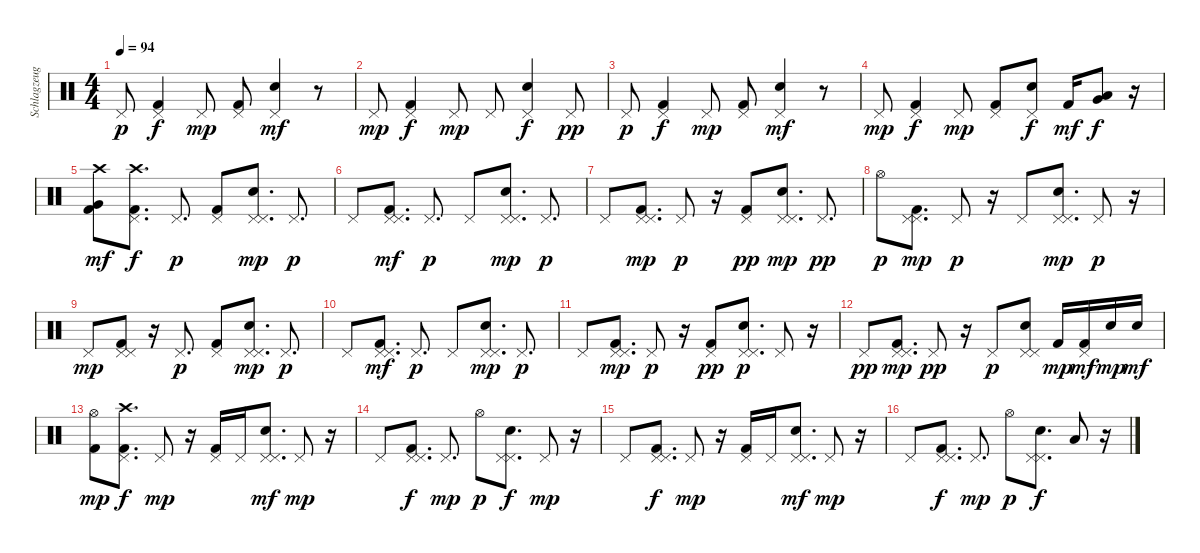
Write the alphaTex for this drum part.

\track ("Schlagzeug" "Schlagzeug") {instrument percussion}
\staff {score}
\articulation defaults
\ts (4 4)
\tempo 94
\clef neutral
\ks c "Pedal Hi-Hat (hit)".8{dy p}
("Kick (hit) 2" "Pedal Hi-Hat (hit)").4{dy f} "Pedal Hi-Hat (hit)".8{dy mp} ("Kick (hit) 2" "Pedal Hi-Hat (hit)").8 ("Electric Snare (hit)" "Pedal Hi-Hat (hit)").4{dy mf} r.8 |
"Pedal Hi-Hat (hit)".8{dy mp} ("Kick (hit) 2" "Pedal Hi-Hat (hit)").4{dy f} "Pedal Hi-Hat (hit)".8{dy mp} "Pedal Hi-Hat (hit)".8 ("Electric Snare (hit)" "Pedal Hi-Hat (hit)").4{dy f} "Pedal Hi-Hat (hit)".8{dy pp} |
"Pedal Hi-Hat (hit)".8{dy p} ("Kick (hit) 2" "Pedal Hi-Hat (hit)").4{dy f} "Pedal Hi-Hat (hit)".8{dy mp} ("Kick (hit) 2" "Pedal Hi-Hat (hit)").8 ("Electric Snare (hit)" "Pedal Hi-Hat (hit)").4{dy mf} r.8 |
"Pedal Hi-Hat (hit)".8{dy mp} ("Kick (hit) 2" "Pedal Hi-Hat (hit)").4{dy f} "Pedal Hi-Hat (hit)".8{dy mp} ("Kick (hit) 2" "Pedal Hi-Hat (hit)").8 ("Electric Snare (hit)" "Pedal Hi-Hat (hit)").8{dy f} "Kick (hit) 2".16{dy mf} ("Low Tom (hit)" "Very Low Tom (hit)").8{dy f} r.16 |
("Very Low Tom (hit)" "Crash high (hit)" "Kick (hit) 2").8{dy mf} ("Crash high (hit)" "Kick (hit) 2" "Pedal Hi-Hat (hit)").8{d dy f} "Pedal Hi-Hat (hit)".8{d dy p} ("Kick (hit) 2" "Pedal Hi-Hat (hit)").8 ("Electric Snare (hit)" "Pedal Hi-Hat (hit)" "Pedal Hi-Hat (hit)").8{d dy mp} "Pedal Hi-Hat (hit)".8{d dy p} |
"Pedal Hi-Hat (hit)".8 ("Kick (hit) 2" "Pedal Hi-Hat (hit)" "Pedal Hi-Hat (hit)").8{d dy mf} "Pedal Hi-Hat (hit)".8{d dy p} "Pedal Hi-Hat (hit)".8 ("Electric Snare (hit)" "Pedal Hi-Hat (hit)" "Pedal Hi-Hat (hit)").8{d dy mp} "Pedal Hi-Hat (hit)".8{d dy p} |
"Pedal Hi-Hat (hit)".8 ("Kick (hit) 2" "Pedal Hi-Hat (hit)" "Pedal Hi-Hat (hit)").8{d dy mp} "Pedal Hi-Hat (hit)".8{dy p} r.16 ("Kick (hit) 2" "Pedal Hi-Hat (hit)").8{dy pp} ("Electric Snare (hit)" "Pedal Hi-Hat (hit)" "Pedal Hi-Hat (hit)").8{d dy mp} "Pedal Hi-Hat (hit)".8{d dy pp} |
"Hi-Hat (open)".8{dy p} ("Kick (hit) 2" "Pedal Hi-Hat (hit)" "Pedal Hi-Hat (hit)").8{d dy mp} "Pedal Hi-Hat (hit)".8{dy p} r.16 "Pedal Hi-Hat (hit)".8 ("Electric Snare (hit)" "Pedal Hi-Hat (hit)" "Pedal Hi-Hat (hit)").8{d dy mp} "Pedal Hi-Hat (hit)".8{dy p} r.16 |
"Pedal Hi-Hat (hit)".8{dy mp} ("Kick (hit) 2" "Pedal Hi-Hat (hit)" "Pedal Hi-Hat (hit)").8 r.16 "Pedal Hi-Hat (hit)".8{d dy p} ("Kick (hit) 2" "Pedal Hi-Hat (hit)").8 ("Electric Snare (hit)" "Pedal Hi-Hat (hit)" "Pedal Hi-Hat (hit)").8{d dy mp} "Pedal Hi-Hat (hit)".8{d dy p} |
"Pedal Hi-Hat (hit)".8 ("Kick (hit) 2" "Pedal Hi-Hat (hit)" "Pedal Hi-Hat (hit)").8{d dy mf} "Pedal Hi-Hat (hit)".8{d dy p} "Pedal Hi-Hat (hit)".8 ("Electric Snare (hit)" "Pedal Hi-Hat (hit)" "Pedal Hi-Hat (hit)").8{d dy mp} "Pedal Hi-Hat (hit)".8{d dy p} |
"Pedal Hi-Hat (hit)".8 ("Kick (hit) 2" "Pedal Hi-Hat (hit)" "Pedal Hi-Hat (hit)").8{d dy mp} "Pedal Hi-Hat (hit)".8{dy p} r.16 ("Kick (hit) 2" "Pedal Hi-Hat (hit)").8{dy pp} ("Electric Snare (hit)" "Pedal Hi-Hat (hit)" "Pedal Hi-Hat (hit)").8{d dy p} "Pedal Hi-Hat (hit)".8 r.16 |
"Pedal Hi-Hat (hit)".8{dy pp} ("Kick (hit) 2" "Pedal Hi-Hat (hit)" "Pedal Hi-Hat (hit)").8{d dy mp} "Pedal Hi-Hat (hit)".8{dy pp} r.16 "Pedal Hi-Hat (hit)".8{dy p} ("Electric Snare (hit)" "Pedal Hi-Hat (hit)" "Pedal Hi-Hat (hit)").8 "Kick (hit) 2".16{dy mp} ("Pedal Hi-Hat (hit)" "Kick (hit) 2").16{dy mf} "Electric Snare (hit)".16{dy mp} "Electric Snare (hit)".16{dy mf} |
("Hi-Hat (open)" "Kick (hit) 2").8{dy mp} ("Crash high (hit)" "Kick (hit) 2" "Pedal Hi-Hat (hit)").8{d dy f} "Pedal Hi-Hat (hit)".8{dy mp} r.16 ("Kick (hit) 2" "Pedal Hi-Hat (hit)").16 "Pedal Hi-Hat (hit)".16 ("Electric Snare (hit)" "Pedal Hi-Hat (hit)" "Pedal Hi-Hat (hit)").8{d dy mf} "Pedal Hi-Hat (hit)".8{dy mp} r.16 |
"Pedal Hi-Hat (hit)".8 ("Kick (hit) 2" "Pedal Hi-Hat (hit)" "Pedal Hi-Hat (hit)").8{d dy f} "Pedal Hi-Hat (hit)".8{d dy mp} "Hi-Hat (open)".8{dy p} ("Electric Snare (hit)" "Pedal Hi-Hat (hit)" "Pedal Hi-Hat (hit)").8{d dy f} "Pedal Hi-Hat (hit)".8{dy mp} r.16 |
"Pedal Hi-Hat (hit)".8 ("Kick (hit) 2" "Pedal Hi-Hat (hit)" "Pedal Hi-Hat (hit)").8{d dy f} "Pedal Hi-Hat (hit)".8{dy mp} r.16 ("Kick (hit) 2" "Pedal Hi-Hat (hit)").16 "Pedal Hi-Hat (hit)".16 ("Electric Snare (hit)" "Pedal Hi-Hat (hit)" "Pedal Hi-Hat (hit)").8{d dy mf} "Pedal Hi-Hat (hit)".8{dy mp} r.16 |
"Pedal Hi-Hat (hit)".8 ("Kick (hit) 2" "Pedal Hi-Hat (hit)" "Pedal Hi-Hat (hit)").8{d dy f} "Pedal Hi-Hat (hit)".8{d dy mp} "Hi-Hat (open)".8{dy p} ("Electric Snare (hit)" "Pedal Hi-Hat (hit)" "Pedal Hi-Hat (hit)").8{d dy f} "Low Tom (hit)".8 r.16
